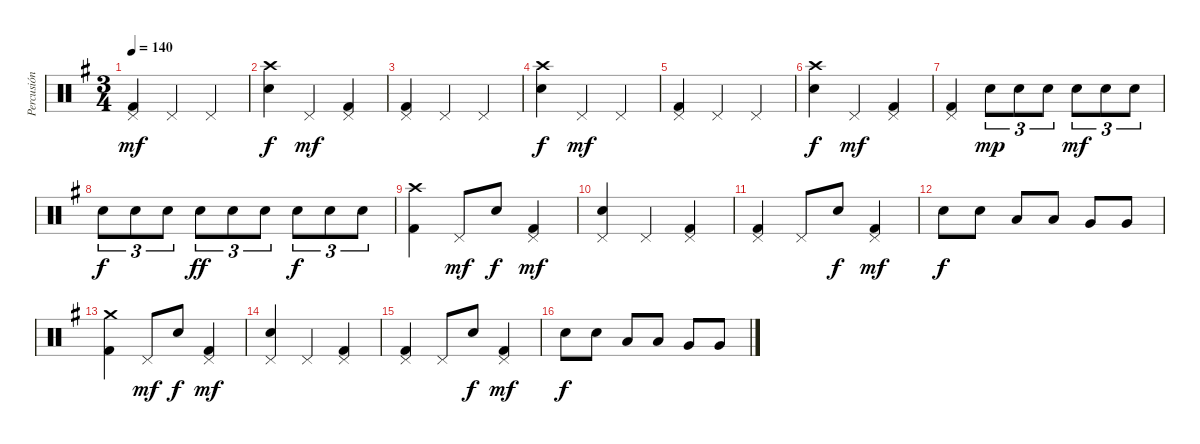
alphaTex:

\track ("Percusión" "Percusión") {instrument percussion}
\staff {score}
\articulation defaults
\ts (3 4)
\tempo 140
\clef neutral
\ks g
("Pedal Hi-Hat (hit)" "Kick (hit) 2").4{dy mf} "Pedal Hi-Hat (hit)".4 "Pedal Hi-Hat (hit)".4 |
("Crash high (hit)" "Snare (hit) 2").4{dy f} "Pedal Hi-Hat (hit)".4{dy mf} ("Pedal Hi-Hat (hit)" "Kick (hit) 2").4 |
("Pedal Hi-Hat (hit)" "Kick (hit) 2").4 "Pedal Hi-Hat (hit)".4 "Pedal Hi-Hat (hit)".4 |
("Crash high (hit)" "Snare (hit) 2").4{dy f} "Pedal Hi-Hat (hit)".4{dy mf} "Pedal Hi-Hat (hit)".4 |
("Pedal Hi-Hat (hit)" "Kick (hit) 2").4 "Pedal Hi-Hat (hit)".4 "Pedal Hi-Hat (hit)".4 |
("Crash high (hit)" "Snare (hit) 2").4{dy f} "Pedal Hi-Hat (hit)".4{dy mf} ("Pedal Hi-Hat (hit)" "Kick (hit) 2").4 |
("Pedal Hi-Hat (hit)" "Kick (hit) 2").4 "Snare (hit) 2".8{tu (3 2) dy mp} "Snare (hit) 2".8{tu (3 2)} "Snare (hit) 2".8{tu (3 2)} "Snare (hit) 2".8{tu (3 2) dy mf} "Snare (hit) 2".8{tu (3 2)} "Snare (hit) 2".8{tu (3 2)} |
"Snare (hit) 2".8{tu (3 2) dy f} "Snare (hit) 2".8{tu (3 2)} "Snare (hit) 2".8{tu (3 2)} "Snare (hit) 2".8{tu (3 2) dy ff} "Snare (hit) 2".8{tu (3 2)} "Snare (hit) 2".8{tu (3 2)} "Snare (hit) 2".8{tu (3 2) dy f} "Snare (hit) 2".8{tu (3 2)} "Snare (hit) 2".8{tu (3 2)} |
("Crash high (hit)" "Kick (hit) 2").4 "Pedal Hi-Hat (hit)".8{dy mf} "Snare (hit) 2".8{dy f} ("Pedal Hi-Hat (hit)" "Kick (hit) 2").4{dy mf} |
("Pedal Hi-Hat (hit)" "Snare (hit) 2").4 "Pedal Hi-Hat (hit)".4 ("Pedal Hi-Hat (hit)" "Kick (hit) 2").4 |
("Pedal Hi-Hat (hit)" "Kick (hit) 2").4 "Pedal Hi-Hat (hit)".8 "Snare (hit) 2".8{dy f} ("Pedal Hi-Hat (hit)" "Kick (hit) 2").4{dy mf} |
"Snare (hit) 2".8{dy f} "Snare (hit) 2".8 "Low Tom (hit)".8 "Low Tom (hit)".8 "Very Low Tom (hit)".8 "Very Low Tom (hit)".8 |
("Crash medium (hit)" "Kick (hit) 2").4 "Pedal Hi-Hat (hit)".8{dy mf} "Snare (hit) 2".8{dy f} ("Pedal Hi-Hat (hit)" "Kick (hit) 2").4{dy mf} |
("Pedal Hi-Hat (hit)" "Snare (hit) 2").4 "Pedal Hi-Hat (hit)".4 ("Pedal Hi-Hat (hit)" "Kick (hit) 2").4 |
("Pedal Hi-Hat (hit)" "Kick (hit) 2").4 "Pedal Hi-Hat (hit)".8 "Snare (hit) 2".8{dy f} ("Pedal Hi-Hat (hit)" "Kick (hit) 2").4{dy mf} |
"Snare (hit) 2".8{dy f} "Snare (hit) 2".8 "Low Tom (hit)".8 "Low Tom (hit)".8 "Very Low Tom (hit)".8 "Very Low Tom (hit)".8
